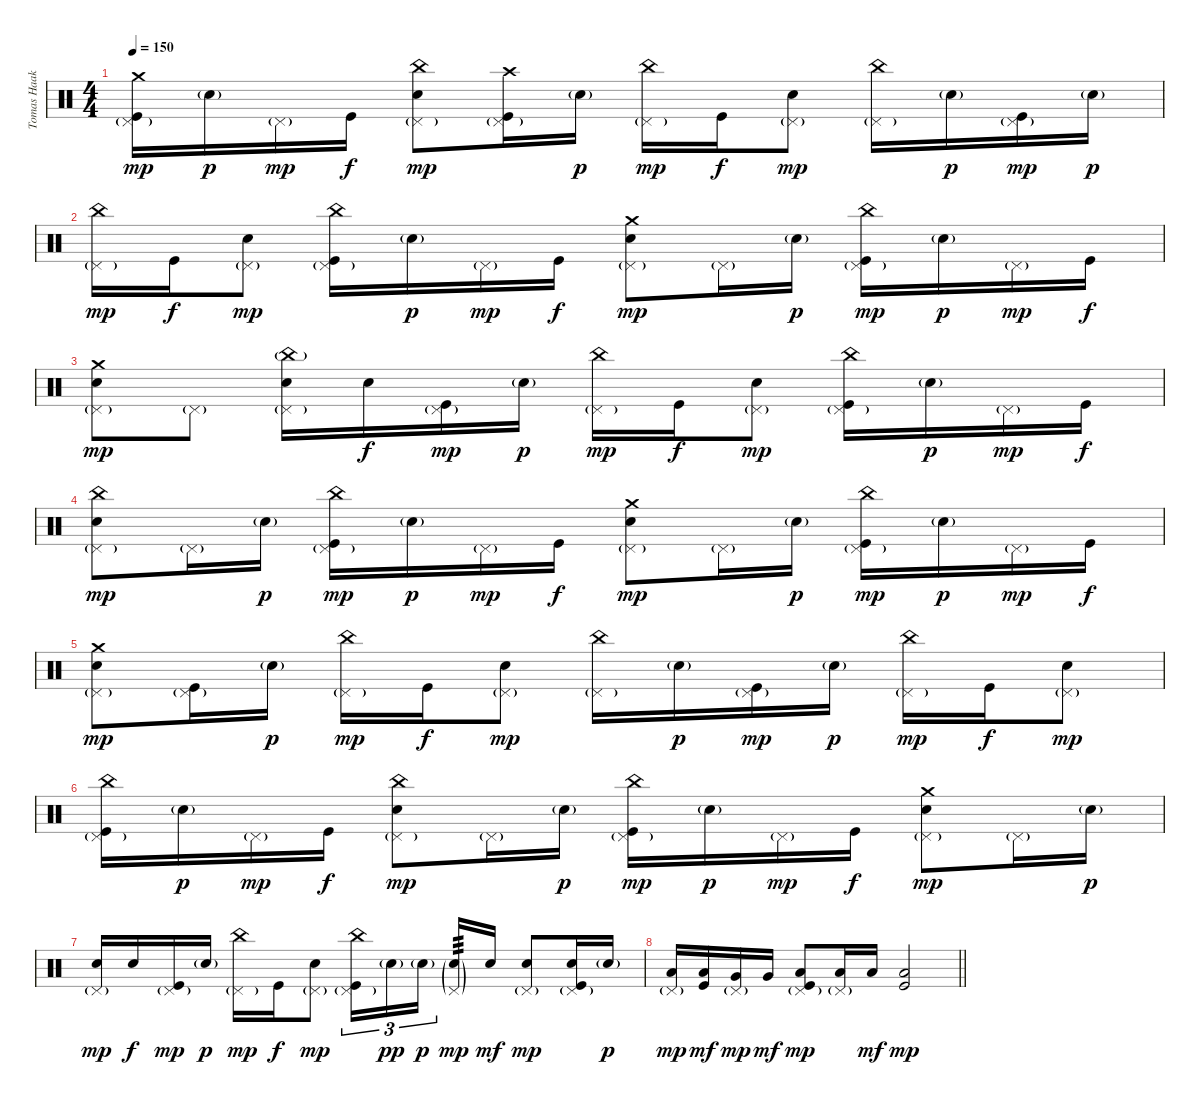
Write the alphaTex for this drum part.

\track ("Tomas Haake (Drums)" "Tomas Haak") {instrument percussion}
\staff {score}
\articulation defaults
\ts (4 4)
\tempo 150
\clef neutral
\ks c
("Crash medium (hit)" "Pedal Hi-Hat (hit)"{g} "Kick (hit)").16{dy mp} "Electric Snare (hit)"{g}.16{dy p} "Pedal Hi-Hat (hit)"{g}.16{dy mp} "Kick (hit)".16{dy f} ("China (hit)" "Pedal Hi-Hat (hit)"{g} "Electric Snare (hit)").8{dy mp} ("Crash high (hit)" "Pedal Hi-Hat (hit)"{g} "Kick (hit)").16 "Electric Snare (hit)"{g}.16{dy p} ("China (hit)" "Pedal Hi-Hat (hit)"{g}).16{dy mp} "Kick (hit)".16{dy f} ("Pedal Hi-Hat (hit)"{g} "Electric Snare (hit)").8{dy mp} ("China (hit)" "Pedal Hi-Hat (hit)"{g}).16 "Electric Snare (hit)"{g}.16{dy p} ("Pedal Hi-Hat (hit)"{g} "Kick (hit)").16{dy mp} "Electric Snare (hit)"{g}.16{dy p} |
("China (hit)" "Pedal Hi-Hat (hit)"{g}).16{dy mp} "Kick (hit)".16{dy f} ("Pedal Hi-Hat (hit)"{g} "Electric Snare (hit)").8{dy mp} ("China (hit)" "Pedal Hi-Hat (hit)"{g} "Kick (hit)").16 "Electric Snare (hit)"{g}.16{dy p} "Pedal Hi-Hat (hit)"{g}.16{dy mp} "Kick (hit)".16{dy f} ("Crash medium (hit)" "Pedal Hi-Hat (hit)"{g} "Electric Snare (hit)").8{dy mp} "Pedal Hi-Hat (hit)"{g}.16 "Electric Snare (hit)"{g}.16{dy p} ("China (hit)" "Pedal Hi-Hat (hit)"{g} "Kick (hit)").16{dy mp} "Electric Snare (hit)"{g}.16{dy p} "Pedal Hi-Hat (hit)"{g}.16{dy mp} "Kick (hit)".16{dy f} |
("Crash medium (hit)" "Pedal Hi-Hat (hit)"{g} "Electric Snare (hit)").8{dy mp} "Pedal Hi-Hat (hit)"{g}.8 ("China (hit)"{g} "Pedal Hi-Hat (hit)"{g} "Electric Snare (hit)").16 "Electric Snare (hit)".16{dy f} ("Pedal Hi-Hat (hit)"{g} "Kick (hit)").16{dy mp} "Electric Snare (hit)"{g}.16{dy p} ("China (hit)" "Pedal Hi-Hat (hit)"{g}).16{dy mp} "Kick (hit)".16{dy f} ("Pedal Hi-Hat (hit)"{g} "Electric Snare (hit)").8{dy mp} ("China (hit)" "Pedal Hi-Hat (hit)"{g} "Kick (hit)").16 "Electric Snare (hit)"{g}.16{dy p} "Pedal Hi-Hat (hit)"{g}.16{dy mp} "Kick (hit)".16{dy f} |
("China (hit)" "Pedal Hi-Hat (hit)"{g} "Electric Snare (hit)").8{dy mp} "Pedal Hi-Hat (hit)"{g}.16 "Electric Snare (hit)"{g}.16{dy p} ("China (hit)" "Pedal Hi-Hat (hit)"{g} "Kick (hit)").16{dy mp} "Electric Snare (hit)"{g}.16{dy p} "Pedal Hi-Hat (hit)"{g}.16{dy mp} "Kick (hit)".16{dy f} ("Crash medium (hit)" "Pedal Hi-Hat (hit)"{g} "Electric Snare (hit)").8{dy mp} "Pedal Hi-Hat (hit)"{g}.16 "Electric Snare (hit)"{g}.16{dy p} ("China (hit)" "Pedal Hi-Hat (hit)"{g} "Kick (hit)").16{dy mp} "Electric Snare (hit)"{g}.16{dy p} "Pedal Hi-Hat (hit)"{g}.16{dy mp} "Kick (hit)".16{dy f} |
("Crash medium (hit)" "Pedal Hi-Hat (hit)"{g} "Electric Snare (hit)").8{dy mp} ("Pedal Hi-Hat (hit)"{g} "Kick (hit)").16 "Electric Snare (hit)"{g}.16{dy p} ("China (hit)" "Pedal Hi-Hat (hit)"{g}).16{dy mp} "Kick (hit)".16{dy f} ("Pedal Hi-Hat (hit)"{g} "Electric Snare (hit)").8{dy mp} ("China (hit)" "Pedal Hi-Hat (hit)"{g}).16 "Electric Snare (hit)"{g}.16{dy p} ("Pedal Hi-Hat (hit)"{g} "Kick (hit)").16{dy mp} "Electric Snare (hit)"{g}.16{dy p} ("China (hit)" "Pedal Hi-Hat (hit)"{g}).16{dy mp} "Kick (hit)".16{dy f} ("Pedal Hi-Hat (hit)"{g} "Electric Snare (hit)").8{dy mp} |
("China (hit)" "Pedal Hi-Hat (hit)"{g} "Kick (hit)").16 "Electric Snare (hit)"{g}.16{dy p} "Pedal Hi-Hat (hit)"{g}.16{dy mp} "Kick (hit)".16{dy f} ("China (hit)" "Pedal Hi-Hat (hit)"{g} "Electric Snare (hit)").8{dy mp} "Pedal Hi-Hat (hit)"{g}.16 "Electric Snare (hit)"{g}.16{dy p} ("China (hit)" "Pedal Hi-Hat (hit)"{g} "Kick (hit)").16{dy mp} "Electric Snare (hit)"{g}.16{dy p} "Pedal Hi-Hat (hit)"{g}.16{dy mp} "Kick (hit)".16{dy f} ("Crash medium (hit)" "Pedal Hi-Hat (hit)"{g} "Electric Snare (hit)").8{dy mp} "Pedal Hi-Hat (hit)"{g}.16 "Electric Snare (hit)"{g}.16{dy p} |
("Pedal Hi-Hat (hit)"{g} "Electric Snare (hit)").16{dy mp} "Electric Snare (hit)".16{dy f} ("Pedal Hi-Hat (hit)"{g} "Kick (hit)").16{dy mp} "Electric Snare (hit)"{g}.16{dy p} ("China (hit)" "Pedal Hi-Hat (hit)"{g}).16{dy mp} "Kick (hit)".16{dy f} ("Pedal Hi-Hat (hit)"{g} "Electric Snare (hit)").8{dy mp} ("China (hit)" "Pedal Hi-Hat (hit)"{g} "Kick (hit)").16{tu (3 2)} "Electric Snare (hit)"{g}.16{tu (3 2) dy pp} "Electric Snare (hit)"{g}.16{tu (3 2) dy p beam splitsecondary} ("Pedal Hi-Hat (hit)"{g} "Electric Snare (hit)"{g}).16{tp 3 dy mp} "Electric Snare (hit)".16{dy mf} ("Pedal Hi-Hat (hit)"{g} "Electric Snare (hit)").8{dy mp} ("Pedal Hi-Hat (hit)"{g} "Electric Snare (hit)" "Kick (hit)").16 "Electric Snare (hit)"{g}.16{dy p} |
\barLineRight lightlight
("Pedal Hi-Hat (hit)"{g} "Low Tom (hit)").16{dy mp} ("Low Tom (hit)" "Kick (hit)").16{dy mf} ("Pedal Hi-Hat (hit)"{g} "Very Low Tom (hit)").16{dy mp} "Very Low Tom (hit)".16{dy mf} ("Pedal Hi-Hat (hit)"{g} "Low Floor Tom (hit)" "Kick (hit)").8{dy mp} ("Pedal Hi-Hat (hit)"{g} "Low Floor Tom (hit)").16 "Low Floor Tom (hit)".16{dy mf} ("Low Floor Tom (hit)" "Kick (hit)").2{dy mp}
